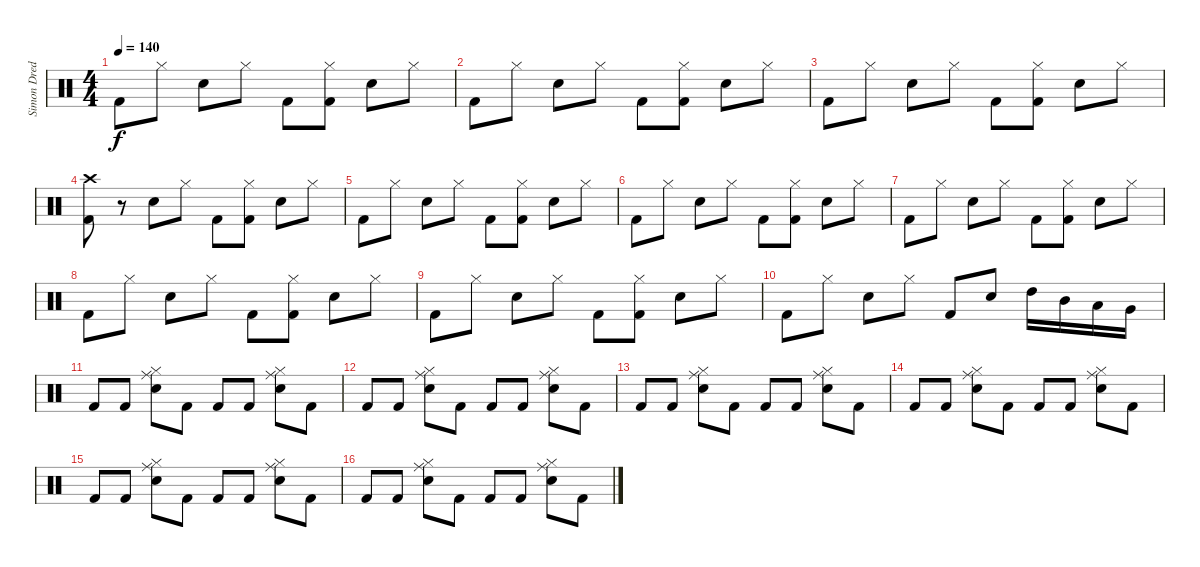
\track ("Simon Dredo" "Simon Dred") {instrument percussion}
\staff {score}
\articulation defaults
\ts (4 4)
\tempo 140
\clef neutral
\ks c "Kick (hit) 2".8{dy f} "Hi-Hat (closed)".8 "Snare (hit) 2".8 "Hi-Hat (closed)".8 "Kick (hit) 2".8
("Hi-Hat (closed)" "Kick (hit) 2").8 "Snare (hit) 2".8 "Hi-Hat (closed)".8 |
"Kick (hit) 2".8 "Hi-Hat (closed)".8 "Snare (hit) 2".8 "Hi-Hat (closed)".8 "Kick (hit) 2".8 ("Hi-Hat (closed)" "Kick (hit) 2").8 "Snare (hit) 2".8 "Hi-Hat (closed)".8 |
"Kick (hit) 2".8 "Hi-Hat (closed)".8 "Snare (hit) 2".8 "Hi-Hat (closed)".8 "Kick (hit) 2".8 ("Hi-Hat (closed)" "Kick (hit) 2").8 "Snare (hit) 2".8 "Hi-Hat (closed)".8 |
("Crash high (hit)" "Kick (hit) 2").8 r.8 "Snare (hit) 2".8 "Hi-Hat (closed)".8 "Kick (hit) 2".8 ("Hi-Hat (closed)" "Kick (hit) 2").8 "Snare (hit) 2".8 "Hi-Hat (closed)".8 |
"Kick (hit) 2".8 "Hi-Hat (closed)".8 "Snare (hit) 2".8 "Hi-Hat (closed)".8 "Kick (hit) 2".8 ("Hi-Hat (closed)" "Kick (hit) 2").8 "Snare (hit) 2".8 "Hi-Hat (closed)".8 |
"Kick (hit) 2".8 "Hi-Hat (closed)".8 "Snare (hit) 2".8 "Hi-Hat (closed)".8 "Kick (hit) 2".8 ("Hi-Hat (closed)" "Kick (hit) 2").8 "Snare (hit) 2".8 "Hi-Hat (closed)".8 |
"Kick (hit) 2".8 "Hi-Hat (closed)".8 "Snare (hit) 2".8 "Hi-Hat (closed)".8 "Kick (hit) 2".8 ("Hi-Hat (closed)" "Kick (hit) 2").8 "Snare (hit) 2".8 "Hi-Hat (closed)".8 |
"Kick (hit) 2".8 "Hi-Hat (closed)".8 "Snare (hit) 2".8 "Hi-Hat (closed)".8 "Kick (hit) 2".8 ("Hi-Hat (closed)" "Kick (hit) 2").8 "Snare (hit) 2".8 "Hi-Hat (closed)".8 |
"Kick (hit) 2".8 "Hi-Hat (closed)".8 "Snare (hit) 2".8 "Hi-Hat (closed)".8 "Kick (hit) 2".8 ("Hi-Hat (closed)" "Kick (hit) 2").8 "Snare (hit) 2".8 "Hi-Hat (closed)".8 |
"Kick (hit) 2".8 "Hi-Hat (closed)".8 "Snare (hit) 2".8 "Hi-Hat (closed)".8 "Kick (hit) 2".8 "Snare (hit) 2".8 "High Tom (hit)".16 "Mid Tom (hit)".16 "Low Tom (hit)".16 "Very Low Tom (hit)".16 |
"Kick (hit) 2".8 "Kick (hit) 2".8 ("Hi-Hat (closed)" "Ride (middle)" "Snare (hit) 2").8 "Kick (hit) 2".8 "Kick (hit) 2".8 "Kick (hit) 2".8 ("Hi-Hat (closed)" "Ride (middle)" "Snare (hit) 2").8 "Kick (hit) 2".8 |
"Kick (hit) 2".8 "Kick (hit) 2".8 ("Hi-Hat (closed)" "Ride (middle)" "Snare (hit) 2").8 "Kick (hit) 2".8 "Kick (hit) 2".8 "Kick (hit) 2".8 ("Hi-Hat (closed)" "Ride (middle)" "Snare (hit) 2").8 "Kick (hit) 2".8 |
"Kick (hit) 2".8 "Kick (hit) 2".8 ("Hi-Hat (closed)" "Ride (middle)" "Snare (hit) 2").8 "Kick (hit) 2".8 "Kick (hit) 2".8 "Kick (hit) 2".8 ("Hi-Hat (closed)" "Ride (middle)" "Snare (hit) 2").8 "Kick (hit) 2".8 |
"Kick (hit) 2".8 "Kick (hit) 2".8 ("Hi-Hat (closed)" "Ride (middle)" "Snare (hit) 2").8 "Kick (hit) 2".8 "Kick (hit) 2".8 "Kick (hit) 2".8 ("Hi-Hat (closed)" "Ride (middle)" "Snare (hit) 2").8 "Kick (hit) 2".8 |
"Kick (hit) 2".8 "Kick (hit) 2".8 ("Hi-Hat (closed)" "Ride (middle)" "Snare (hit) 2").8 "Kick (hit) 2".8 "Kick (hit) 2".8 "Kick (hit) 2".8 ("Hi-Hat (closed)" "Ride (middle)" "Snare (hit) 2").8 "Kick (hit) 2".8 |
"Kick (hit) 2".8 "Kick (hit) 2".8 ("Hi-Hat (closed)" "Ride (middle)" "Snare (hit) 2").8 "Kick (hit) 2".8 "Kick (hit) 2".8 "Kick (hit) 2".8 ("Hi-Hat (closed)" "Ride (middle)" "Snare (hit) 2").8 "Kick (hit) 2".8
